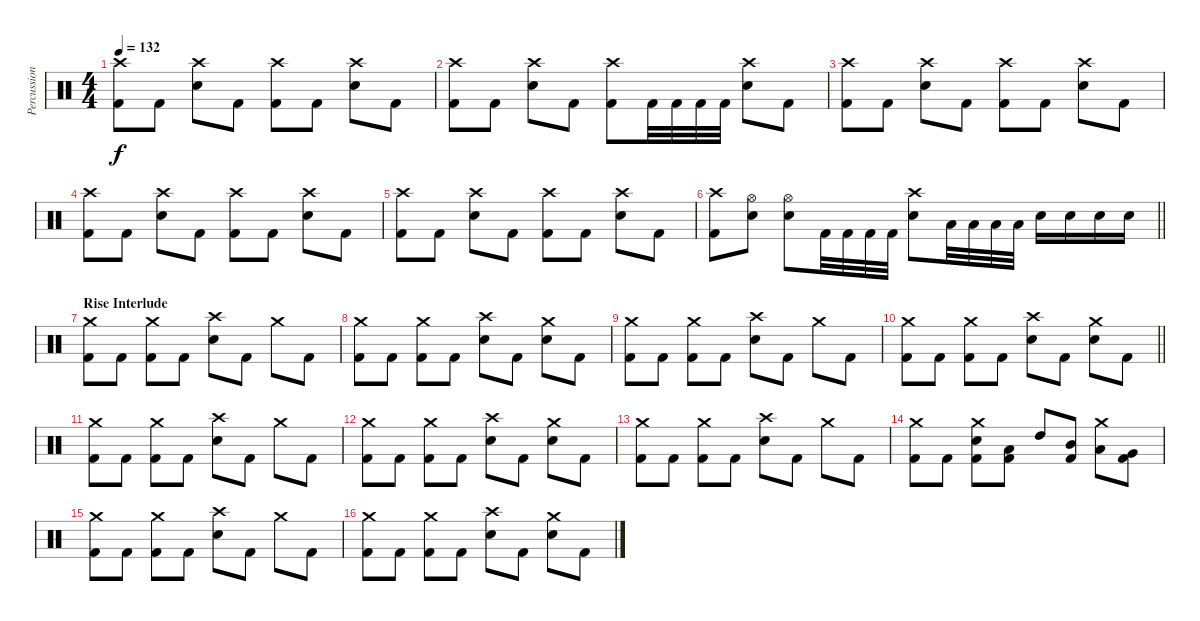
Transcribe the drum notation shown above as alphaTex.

\track ("Percussion" "Percussion") {instrument percussion}
\staff {score}
\articulation defaults
\ts (4 4)
\tempo 132
\clef neutral
\ks c
("Crash high (hit)" "Kick (hit) 2").8{dy f} "Kick (hit) 2".8 ("Crash high (hit)" "Electric Snare (hit)").8 "Kick (hit) 2".8 ("Crash high (hit)" "Kick (hit) 2").8 "Kick (hit) 2".8 ("Crash high (hit)" "Electric Snare (hit)").8 "Kick (hit) 2".8 |
("Crash high (hit)" "Kick (hit) 2").8 "Kick (hit) 2".8 ("Crash high (hit)" "Electric Snare (hit)").8 "Kick (hit) 2".8 ("Crash high (hit)" "Kick (hit) 2").8 "Kick (hit) 2".32 "Kick (hit) 2".32 "Kick (hit) 2".32 "Kick (hit) 2".32 ("Crash high (hit)" "Electric Snare (hit)").8 "Kick (hit) 2".8 |
("Crash high (hit)" "Kick (hit) 2").8 "Kick (hit) 2".8 ("Crash high (hit)" "Electric Snare (hit)").8 "Kick (hit) 2".8 ("Crash high (hit)" "Kick (hit) 2").8 "Kick (hit) 2".8 ("Crash high (hit)" "Electric Snare (hit)").8 "Kick (hit) 2".8 |
("Crash high (hit)" "Kick (hit) 2").8 "Kick (hit) 2".8 ("Crash high (hit)" "Electric Snare (hit)").8 "Kick (hit) 2".8 ("Crash high (hit)" "Kick (hit) 2").8 "Kick (hit) 2".8 ("Crash high (hit)" "Electric Snare (hit)").8 "Kick (hit) 2".8 |
("Crash high (hit)" "Kick (hit) 2").8 "Kick (hit) 2".8 ("Crash high (hit)" "Electric Snare (hit)").8 "Kick (hit) 2".8 ("Crash high (hit)" "Kick (hit) 2").8 "Kick (hit) 2".8 ("Crash high (hit)" "Electric Snare (hit)").8 "Kick (hit) 2".8 |
\barLineRight lightlight
("Crash high (hit)" "Kick (hit) 2").8 ("Hi-Hat (open)" "Electric Snare (hit)").8 ("Hi-Hat (open)" "Electric Snare (hit)").8 "Kick (hit) 2".32 "Kick (hit) 2".32 "Kick (hit) 2".32 "Kick (hit) 2".32 ("Crash high (hit)" "Electric Snare (hit)").8 "Low Tom (hit)".32 "Low Tom (hit)".32 "Low Tom (hit)".32 "Low Tom (hit)".32 "Electric Snare (hit)".16 "Electric Snare (hit)".16 "Electric Snare (hit)".16 "Electric Snare (hit)".16 |
\section ("" "Rise Interlude")
("Crash medium (hit)" "Kick (hit) 2").8 "Kick (hit) 2".8 ("Crash medium (hit)" "Kick (hit) 2").8 "Kick (hit) 2".8 ("Crash high (hit)" "Electric Snare (hit)").8 "Kick (hit) 2".8 "Crash medium (hit)".8 "Kick (hit) 2".8 |
("Crash medium (hit)" "Kick (hit) 2").8 "Kick (hit) 2".8 ("Crash medium (hit)" "Kick (hit) 2").8 "Kick (hit) 2".8 ("Crash high (hit)" "Electric Snare (hit)").8 "Kick (hit) 2".8 ("Crash medium (hit)" "Electric Snare (hit)").8 "Kick (hit) 2".8 |
("Crash medium (hit)" "Kick (hit) 2").8 "Kick (hit) 2".8 ("Crash medium (hit)" "Kick (hit) 2").8 "Kick (hit) 2".8 ("Crash high (hit)" "Electric Snare (hit)").8 "Kick (hit) 2".8 "Crash medium (hit)".8 "Kick (hit) 2".8 |
\barLineRight lightlight
("Crash medium (hit)" "Kick (hit) 2").8 "Kick (hit) 2".8 ("Crash medium (hit)" "Kick (hit) 2").8 "Kick (hit) 2".8 ("Crash high (hit)" "Electric Snare (hit)").8 "Kick (hit) 2".8 ("Crash medium (hit)" "Electric Snare (hit)").8 "Kick (hit) 2".8 |
\section ("" "")
("Crash medium (hit)" "Kick (hit) 2").8 "Kick (hit) 2".8 ("Crash medium (hit)" "Kick (hit) 2").8 "Kick (hit) 2".8 ("Crash high (hit)" "Electric Snare (hit)").8 "Kick (hit) 2".8 "Crash medium (hit)".8 "Kick (hit) 2".8 |
("Crash medium (hit)" "Kick (hit) 2").8 "Kick (hit) 2".8 ("Crash medium (hit)" "Kick (hit) 2").8 "Kick (hit) 2".8 ("Crash high (hit)" "Electric Snare (hit)").8 "Kick (hit) 2".8 ("Crash medium (hit)" "Electric Snare (hit)").8 "Kick (hit) 2".8 |
("Crash medium (hit)" "Kick (hit) 2").8 "Kick (hit) 2".8 ("Crash medium (hit)" "Kick (hit) 2").8 "Kick (hit) 2".8 ("Crash high (hit)" "Electric Snare (hit)").8 "Kick (hit) 2".8 "Crash medium (hit)".8 "Kick (hit) 2".8 |
("Crash medium (hit)" "Kick (hit) 2").8 "Kick (hit) 2".8 ("Crash medium (hit)" "Electric Snare (hit)" "Kick (hit) 2").8 ("Low Floor Tom (hit)" "Kick (hit) 2").8 "High Tom (hit)".8 ("Mid Tom (hit)" "Kick (hit) 2").8 ("Crash medium (hit)" "Low Tom (hit)").8 ("Very Low Tom (hit)" "Kick (hit) 2").8 |
("Crash medium (hit)" "Kick (hit) 2").8 "Kick (hit) 2".8 ("Crash medium (hit)" "Kick (hit) 2").8 "Kick (hit) 2".8 ("Crash high (hit)" "Electric Snare (hit)").8 "Kick (hit) 2".8 "Crash medium (hit)".8 "Kick (hit) 2".8 |
("Crash medium (hit)" "Kick (hit) 2").8 "Kick (hit) 2".8 ("Crash medium (hit)" "Kick (hit) 2").8 "Kick (hit) 2".8 ("Crash high (hit)" "Electric Snare (hit)").8 "Kick (hit) 2".8 ("Crash medium (hit)" "Electric Snare (hit)").8 "Kick (hit) 2".8
